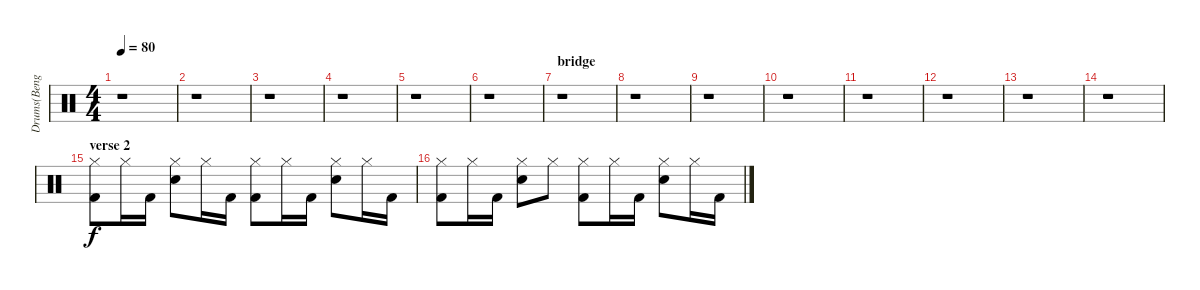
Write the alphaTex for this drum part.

\track ("Drums(Bengerg)" "Drums(Beng") {instrument percussion}
\staff {score}
\articulation defaults
\ts (4 4)
\tempo 80
\clef neutral
\ks c
r.1{dy f} |
r.1 |
r.1 |
r.1 |
r.1 |
r.1 |
\section ("" "bridge")
r.1 |
r.1 |
r.1 |
r.1 |
r.1 |
r.1 |
r.1 |
r.1 |
\section ("" "verse 2")
("Hi-Hat (closed)" "Kick (hit) 2").8 "Hi-Hat (closed)".16 "Kick (hit) 2".16 ("Hi-Hat (closed)" "Electric Snare (hit)").8 "Hi-Hat (closed)".16 "Kick (hit) 2".16 ("Hi-Hat (closed)" "Kick (hit) 2").8 "Hi-Hat (closed)".16 "Kick (hit) 2".16 ("Hi-Hat (closed)" "Electric Snare (hit)").8 "Hi-Hat (closed)".16 "Kick (hit) 2".16 |
("Hi-Hat (closed)" "Kick (hit) 2").8 "Hi-Hat (closed)".16 "Kick (hit) 2".16 ("Hi-Hat (closed)" "Electric Snare (hit)").8 "Hi-Hat (closed)".8 ("Hi-Hat (closed)" "Kick (hit) 2").8 "Hi-Hat (closed)".16 "Kick (hit) 2".16 ("Hi-Hat (closed)" "Electric Snare (hit)").8 "Hi-Hat (closed)".16 "Kick (hit) 2".16
